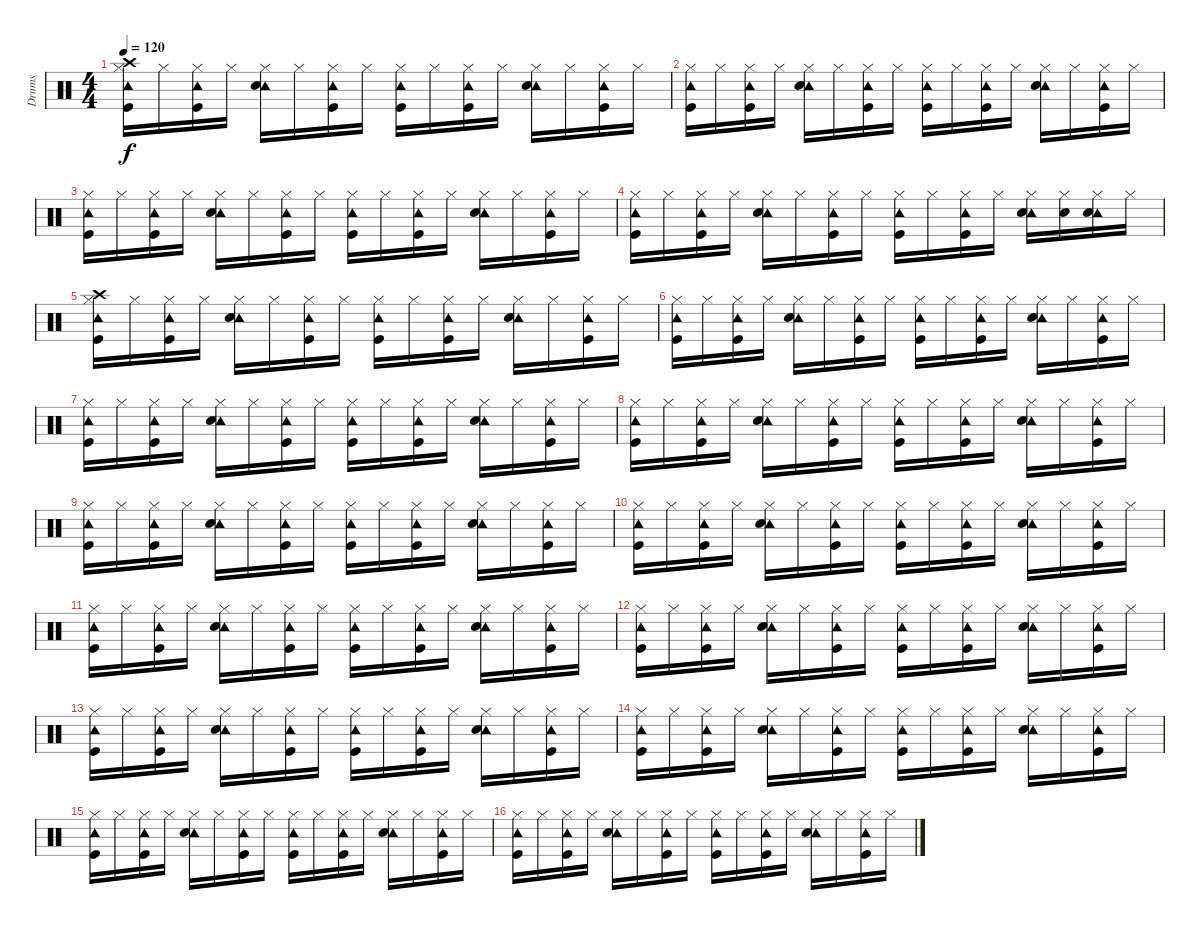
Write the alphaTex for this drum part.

\track ("Drums" "Drums") {instrument percussion}
\staff {score}
\articulation defaults
\ts (4 4)
\tempo 120
\clef neutral
\ks c
("Crash high (hit)" "Hi-Hat (closed)" "Tambourine (hit)" "Kick (hit)").16{dy f} "Hi-Hat (closed)".16 ("Hi-Hat (closed)" "Tambourine (hit)" "Kick (hit)").16 "Hi-Hat (closed)".16 ("Hi-Hat (closed)" "Tambourine (hit)" "Snare (hit) 2").16 "Hi-Hat (closed)".16 ("Hi-Hat (closed)" "Tambourine (hit)" "Kick (hit)").16 "Hi-Hat (closed)".16 ("Hi-Hat (closed)" "Tambourine (hit)" "Kick (hit)").16 "Hi-Hat (closed)".16 ("Hi-Hat (closed)" "Tambourine (hit)" "Kick (hit)").16 "Hi-Hat (closed)".16 ("Hi-Hat (closed)" "Tambourine (hit)" "Snare (hit) 2").16 "Hi-Hat (closed)".16 ("Hi-Hat (closed)" "Tambourine (hit)" "Kick (hit)").16 "Hi-Hat (closed)".16 |
("Hi-Hat (closed)" "Tambourine (hit)" "Kick (hit)").16 "Hi-Hat (closed)".16 ("Hi-Hat (closed)" "Tambourine (hit)" "Kick (hit)").16 "Hi-Hat (closed)".16 ("Hi-Hat (closed)" "Tambourine (hit)" "Snare (hit) 2").16 "Hi-Hat (closed)".16 ("Hi-Hat (closed)" "Tambourine (hit)" "Kick (hit)").16 "Hi-Hat (closed)".16 ("Hi-Hat (closed)" "Tambourine (hit)" "Kick (hit)").16 "Hi-Hat (closed)".16 ("Hi-Hat (closed)" "Tambourine (hit)" "Kick (hit)").16 "Hi-Hat (closed)".16 ("Hi-Hat (closed)" "Tambourine (hit)" "Snare (hit) 2").16 "Hi-Hat (closed)".16 ("Hi-Hat (closed)" "Tambourine (hit)" "Kick (hit)").16 "Hi-Hat (closed)".16 |
("Hi-Hat (closed)" "Tambourine (hit)" "Kick (hit)").16 "Hi-Hat (closed)".16 ("Hi-Hat (closed)" "Tambourine (hit)" "Kick (hit)").16 "Hi-Hat (closed)".16 ("Hi-Hat (closed)" "Tambourine (hit)" "Snare (hit) 2").16 "Hi-Hat (closed)".16 ("Hi-Hat (closed)" "Tambourine (hit)" "Kick (hit)").16 "Hi-Hat (closed)".16 ("Hi-Hat (closed)" "Tambourine (hit)" "Kick (hit)").16 "Hi-Hat (closed)".16 ("Hi-Hat (closed)" "Tambourine (hit)" "Kick (hit)").16 "Hi-Hat (closed)".16 ("Hi-Hat (closed)" "Tambourine (hit)" "Snare (hit) 2").16 "Hi-Hat (closed)".16 ("Hi-Hat (closed)" "Tambourine (hit)" "Kick (hit)").16 "Hi-Hat (closed)".16 |
("Hi-Hat (closed)" "Tambourine (hit)" "Kick (hit)").16 "Hi-Hat (closed)".16 ("Hi-Hat (closed)" "Tambourine (hit)" "Kick (hit)").16 "Hi-Hat (closed)".16 ("Hi-Hat (closed)" "Tambourine (hit)" "Snare (hit) 2").16 "Hi-Hat (closed)".16 ("Hi-Hat (closed)" "Tambourine (hit)" "Kick (hit)").16 "Hi-Hat (closed)".16 ("Hi-Hat (closed)" "Tambourine (hit)" "Kick (hit)").16 "Hi-Hat (closed)".16 ("Hi-Hat (closed)" "Tambourine (hit)" "Kick (hit)").16 "Hi-Hat (closed)".16 ("Hi-Hat (closed)" "Tambourine (hit)" "Snare (hit) 2").16 ("Hi-Hat (closed)" "Snare (hit) 2").16 ("Hi-Hat (closed)" "Tambourine (hit)" "Snare (hit) 2").16 "Hi-Hat (closed)".16 |
("Crash high (hit)" "Hi-Hat (closed)" "Tambourine (hit)" "Kick (hit)").16 "Hi-Hat (closed)".16 ("Hi-Hat (closed)" "Tambourine (hit)" "Kick (hit)").16 "Hi-Hat (closed)".16 ("Hi-Hat (closed)" "Tambourine (hit)" "Snare (hit) 2").16 "Hi-Hat (closed)".16 ("Hi-Hat (closed)" "Tambourine (hit)" "Kick (hit)").16 "Hi-Hat (closed)".16 ("Hi-Hat (closed)" "Tambourine (hit)" "Kick (hit)").16 "Hi-Hat (closed)".16 ("Hi-Hat (closed)" "Tambourine (hit)" "Kick (hit)").16 "Hi-Hat (closed)".16 ("Hi-Hat (closed)" "Tambourine (hit)" "Snare (hit) 2").16 "Hi-Hat (closed)".16 ("Hi-Hat (closed)" "Tambourine (hit)" "Kick (hit)").16 "Hi-Hat (closed)".16 |
("Hi-Hat (closed)" "Tambourine (hit)" "Kick (hit)").16 "Hi-Hat (closed)".16 ("Hi-Hat (closed)" "Tambourine (hit)" "Kick (hit)").16 "Hi-Hat (closed)".16 ("Hi-Hat (closed)" "Tambourine (hit)" "Snare (hit) 2").16 "Hi-Hat (closed)".16 ("Hi-Hat (closed)" "Tambourine (hit)" "Kick (hit)").16 "Hi-Hat (closed)".16 ("Hi-Hat (closed)" "Tambourine (hit)" "Kick (hit)").16 "Hi-Hat (closed)".16 ("Hi-Hat (closed)" "Tambourine (hit)" "Kick (hit)").16 "Hi-Hat (closed)".16 ("Hi-Hat (closed)" "Tambourine (hit)" "Snare (hit) 2").16 "Hi-Hat (closed)".16 ("Hi-Hat (closed)" "Tambourine (hit)" "Kick (hit)").16 "Hi-Hat (closed)".16 |
("Hi-Hat (closed)" "Tambourine (hit)" "Kick (hit)").16 "Hi-Hat (closed)".16 ("Hi-Hat (closed)" "Tambourine (hit)" "Kick (hit)").16 "Hi-Hat (closed)".16 ("Hi-Hat (closed)" "Tambourine (hit)" "Snare (hit) 2").16 "Hi-Hat (closed)".16 ("Hi-Hat (closed)" "Tambourine (hit)" "Kick (hit)").16 "Hi-Hat (closed)".16 ("Hi-Hat (closed)" "Tambourine (hit)" "Kick (hit)").16 "Hi-Hat (closed)".16 ("Hi-Hat (closed)" "Tambourine (hit)" "Kick (hit)").16 "Hi-Hat (closed)".16 ("Hi-Hat (closed)" "Tambourine (hit)" "Snare (hit) 2").16 "Hi-Hat (closed)".16 ("Hi-Hat (closed)" "Tambourine (hit)" "Kick (hit)").16 "Hi-Hat (closed)".16 |
("Hi-Hat (closed)" "Tambourine (hit)" "Kick (hit)").16 "Hi-Hat (closed)".16 ("Hi-Hat (closed)" "Tambourine (hit)" "Kick (hit)").16 "Hi-Hat (closed)".16 ("Hi-Hat (closed)" "Tambourine (hit)" "Snare (hit) 2").16 "Hi-Hat (closed)".16 ("Hi-Hat (closed)" "Tambourine (hit)" "Kick (hit)").16 "Hi-Hat (closed)".16 ("Hi-Hat (closed)" "Tambourine (hit)" "Kick (hit)").16 "Hi-Hat (closed)".16 ("Hi-Hat (closed)" "Tambourine (hit)" "Kick (hit)").16 "Hi-Hat (closed)".16 ("Hi-Hat (closed)" "Tambourine (hit)" "Snare (hit) 2").16 "Hi-Hat (closed)".16 ("Hi-Hat (closed)" "Tambourine (hit)" "Kick (hit)").16 "Hi-Hat (closed)".16 |
("Hi-Hat (closed)" "Tambourine (hit)" "Kick (hit)").16 "Hi-Hat (closed)".16 ("Hi-Hat (closed)" "Tambourine (hit)" "Kick (hit)").16 "Hi-Hat (closed)".16 ("Hi-Hat (closed)" "Tambourine (hit)" "Snare (hit) 2").16 "Hi-Hat (closed)".16 ("Hi-Hat (closed)" "Tambourine (hit)" "Kick (hit)").16 "Hi-Hat (closed)".16 ("Hi-Hat (closed)" "Tambourine (hit)" "Kick (hit)").16 "Hi-Hat (closed)".16 ("Hi-Hat (closed)" "Tambourine (hit)" "Kick (hit)").16 "Hi-Hat (closed)".16 ("Hi-Hat (closed)" "Tambourine (hit)" "Snare (hit) 2").16 "Hi-Hat (closed)".16 ("Hi-Hat (closed)" "Tambourine (hit)" "Kick (hit)").16 "Hi-Hat (closed)".16 |
("Hi-Hat (closed)" "Tambourine (hit)" "Kick (hit)").16 "Hi-Hat (closed)".16 ("Hi-Hat (closed)" "Tambourine (hit)" "Kick (hit)").16 "Hi-Hat (closed)".16 ("Hi-Hat (closed)" "Tambourine (hit)" "Snare (hit) 2").16 "Hi-Hat (closed)".16 ("Hi-Hat (closed)" "Tambourine (hit)" "Kick (hit)").16 "Hi-Hat (closed)".16 ("Hi-Hat (closed)" "Tambourine (hit)" "Kick (hit)").16 "Hi-Hat (closed)".16 ("Hi-Hat (closed)" "Tambourine (hit)" "Kick (hit)").16 "Hi-Hat (closed)".16 ("Hi-Hat (closed)" "Tambourine (hit)" "Snare (hit) 2").16 "Hi-Hat (closed)".16 ("Hi-Hat (closed)" "Tambourine (hit)" "Kick (hit)").16 "Hi-Hat (closed)".16 |
("Hi-Hat (closed)" "Tambourine (hit)" "Kick (hit)").16 "Hi-Hat (closed)".16 ("Hi-Hat (closed)" "Tambourine (hit)" "Kick (hit)").16 "Hi-Hat (closed)".16 ("Hi-Hat (closed)" "Tambourine (hit)" "Snare (hit) 2").16 "Hi-Hat (closed)".16 ("Hi-Hat (closed)" "Tambourine (hit)" "Kick (hit)").16 "Hi-Hat (closed)".16 ("Hi-Hat (closed)" "Tambourine (hit)" "Kick (hit)").16 "Hi-Hat (closed)".16 ("Hi-Hat (closed)" "Tambourine (hit)" "Kick (hit)").16 "Hi-Hat (closed)".16 ("Hi-Hat (closed)" "Tambourine (hit)" "Snare (hit) 2").16 "Hi-Hat (closed)".16 ("Hi-Hat (closed)" "Tambourine (hit)" "Kick (hit)").16 "Hi-Hat (closed)".16 |
("Hi-Hat (closed)" "Tambourine (hit)" "Kick (hit)").16 "Hi-Hat (closed)".16 ("Hi-Hat (closed)" "Tambourine (hit)" "Kick (hit)").16 "Hi-Hat (closed)".16 ("Hi-Hat (closed)" "Tambourine (hit)" "Snare (hit) 2").16 "Hi-Hat (closed)".16 ("Hi-Hat (closed)" "Tambourine (hit)" "Kick (hit)").16 "Hi-Hat (closed)".16 ("Hi-Hat (closed)" "Tambourine (hit)" "Kick (hit)").16 "Hi-Hat (closed)".16 ("Hi-Hat (closed)" "Tambourine (hit)" "Kick (hit)").16 "Hi-Hat (closed)".16 ("Hi-Hat (closed)" "Tambourine (hit)" "Snare (hit) 2").16 "Hi-Hat (closed)".16 ("Hi-Hat (closed)" "Tambourine (hit)" "Kick (hit)").16 "Hi-Hat (closed)".16 |
("Hi-Hat (closed)" "Tambourine (hit)" "Kick (hit)").16 "Hi-Hat (closed)".16 ("Hi-Hat (closed)" "Tambourine (hit)" "Kick (hit)").16 "Hi-Hat (closed)".16 ("Hi-Hat (closed)" "Tambourine (hit)" "Snare (hit) 2").16 "Hi-Hat (closed)".16 ("Hi-Hat (closed)" "Tambourine (hit)" "Kick (hit)").16 "Hi-Hat (closed)".16 ("Hi-Hat (closed)" "Tambourine (hit)" "Kick (hit)").16 "Hi-Hat (closed)".16 ("Hi-Hat (closed)" "Tambourine (hit)" "Kick (hit)").16 "Hi-Hat (closed)".16 ("Hi-Hat (closed)" "Tambourine (hit)" "Snare (hit) 2").16 "Hi-Hat (closed)".16 ("Hi-Hat (closed)" "Tambourine (hit)" "Kick (hit)").16 "Hi-Hat (closed)".16 |
("Hi-Hat (closed)" "Tambourine (hit)" "Kick (hit)").16 "Hi-Hat (closed)".16 ("Hi-Hat (closed)" "Tambourine (hit)" "Kick (hit)").16 "Hi-Hat (closed)".16 ("Hi-Hat (closed)" "Tambourine (hit)" "Snare (hit) 2").16 "Hi-Hat (closed)".16 ("Hi-Hat (closed)" "Tambourine (hit)" "Kick (hit)").16 "Hi-Hat (closed)".16 ("Hi-Hat (closed)" "Tambourine (hit)" "Kick (hit)").16 "Hi-Hat (closed)".16 ("Hi-Hat (closed)" "Tambourine (hit)" "Kick (hit)").16 "Hi-Hat (closed)".16 ("Hi-Hat (closed)" "Tambourine (hit)" "Snare (hit) 2").16 "Hi-Hat (closed)".16 ("Hi-Hat (closed)" "Tambourine (hit)" "Kick (hit)").16 "Hi-Hat (closed)".16 |
("Hi-Hat (closed)" "Tambourine (hit)" "Kick (hit)").16 "Hi-Hat (closed)".16 ("Hi-Hat (closed)" "Tambourine (hit)" "Kick (hit)").16 "Hi-Hat (closed)".16 ("Hi-Hat (closed)" "Tambourine (hit)" "Snare (hit) 2").16 "Hi-Hat (closed)".16 ("Hi-Hat (closed)" "Tambourine (hit)" "Kick (hit)").16 "Hi-Hat (closed)".16 ("Hi-Hat (closed)" "Tambourine (hit)" "Kick (hit)").16 "Hi-Hat (closed)".16 ("Hi-Hat (closed)" "Tambourine (hit)" "Kick (hit)").16 "Hi-Hat (closed)".16 ("Hi-Hat (closed)" "Tambourine (hit)" "Snare (hit) 2").16 "Hi-Hat (closed)".16 ("Hi-Hat (closed)" "Tambourine (hit)" "Kick (hit)").16 "Hi-Hat (closed)".16 |
("Hi-Hat (closed)" "Tambourine (hit)" "Kick (hit)").16 "Hi-Hat (closed)".16 ("Hi-Hat (closed)" "Tambourine (hit)" "Kick (hit)").16 "Hi-Hat (closed)".16 ("Hi-Hat (closed)" "Tambourine (hit)" "Snare (hit) 2").16 "Hi-Hat (closed)".16 ("Hi-Hat (closed)" "Tambourine (hit)" "Kick (hit)").16 "Hi-Hat (closed)".16 ("Hi-Hat (closed)" "Tambourine (hit)" "Kick (hit)").16 "Hi-Hat (closed)".16 ("Hi-Hat (closed)" "Tambourine (hit)" "Kick (hit)").16 "Hi-Hat (closed)".16 ("Hi-Hat (closed)" "Tambourine (hit)" "Snare (hit) 2").16 "Hi-Hat (closed)".16 ("Hi-Hat (closed)" "Tambourine (hit)" "Kick (hit)").16 "Hi-Hat (closed)".16
